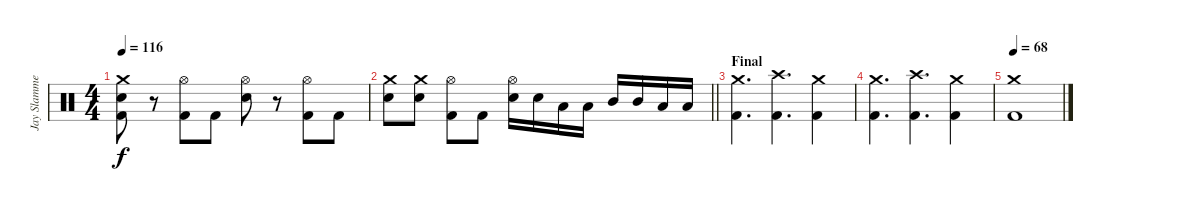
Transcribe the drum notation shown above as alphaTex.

\track ("Jay Slammer " "Jay Slamme") {instrument percussion}
\staff {score}
\articulation defaults
\ts (4 4)
\tempo 116
\clef neutral
\ks c
("Crash medium (hit)" "Kick (hit) 2" "Snare (hit) 2").8{dy f} r.8 ("Hi-Hat (open)" "Kick (hit) 2").8 "Kick (hit) 2".8 ("Hi-Hat (open)" "Snare (hit) 2").8 r.8 ("Hi-Hat (open)" "Kick (hit) 2").8 "Kick (hit) 2".8 |
\barLineRight lightlight
("Crash medium (hit)" "Snare (hit) 2").8 ("Crash medium (hit)" "Snare (hit) 2").8 ("Hi-Hat (open)" "Kick (hit) 2").8 "Kick (hit) 2".8 ("Hi-Hat (open)" "Snare (hit) 2").16 "Snare (hit) 2".16 "Low Tom (hit)".16 "Low Tom (hit)".16 "Mid Tom (hit)".16 "Mid Tom (hit)".16 "Low Tom (hit)".16 "Low Tom (hit)".16 |
\section ("" "Final")
("Crash medium (hit)" "Kick (hit) 2").4{d} ("Crash high (hit)" "Kick (hit) 2").4{d} ("Crash medium (hit)" "Kick (hit) 2").4 |
("Crash medium (hit)" "Kick (hit) 2").4{d} ("Crash high (hit)" "Kick (hit) 2").4{d} ("Crash medium (hit)" "Kick (hit) 2").4 |
\tempo 68
("Kick (hit) 2" "Crash medium (hit)").1
